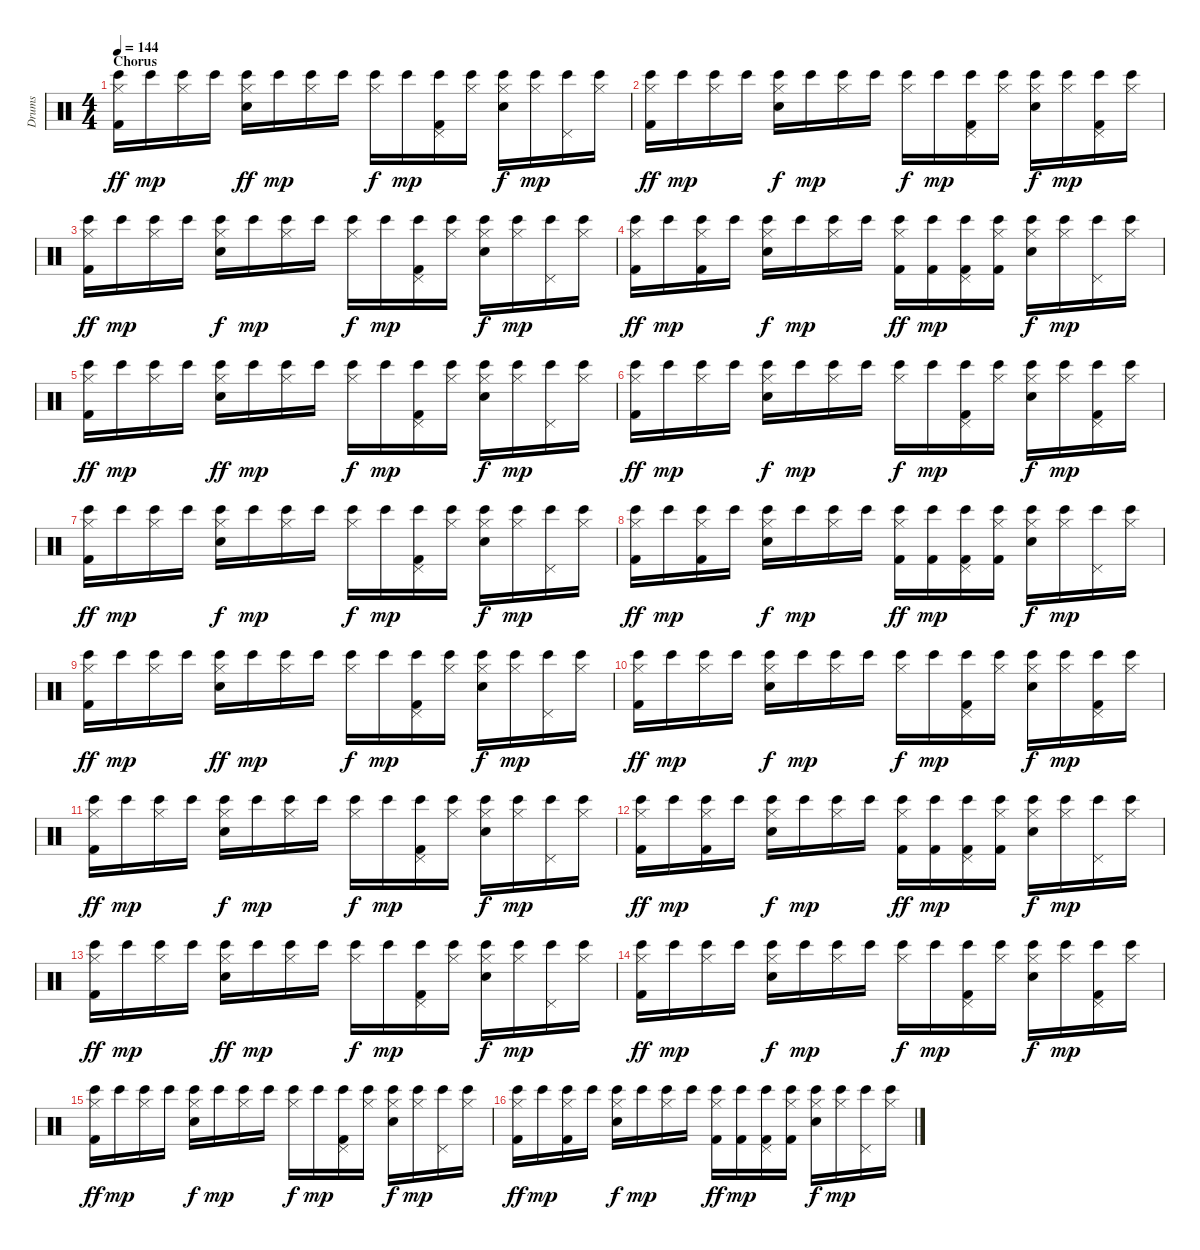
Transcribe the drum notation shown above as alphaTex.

\track ("Drums" "Drums") {instrument percussion}
\staff {score}
\articulation defaults
\ts (4 4)
\section ("" "Chorus")
\tempo 144
\clef neutral
\ks c
("Kick (hit) 2" "Hi-Hat (closed)" "Bongo High (hit)").16{dy ff} "Bongo High (hit)".16{dy mp} ("Hi-Hat (closed)" "Bongo High (hit)").16 "Bongo High (hit)".16 ("Snare (hit) 2" "Hi-Hat (closed)" "Bongo High (hit)").16{dy ff} "Bongo High (hit)".16{dy mp} ("Hi-Hat (closed)" "Bongo High (hit)").16 "Bongo High (hit)".16 ("Hi-Hat (closed)" "Bongo High (hit)").16{dy f} "Bongo High (hit)".16{dy mp} ("Kick (hit) 2" "Pedal Hi-Hat (hit)" "Bongo High (hit)").16 ("Hi-Hat (closed)" "Bongo High (hit)").16 ("Snare (hit) 2" "Hi-Hat (closed)" "Bongo High (hit)").16{dy f} ("Hi-Hat (closed)" "Bongo High (hit)").16{dy mp} ("Pedal Hi-Hat (hit)" "Bongo High (hit)").16 ("Hi-Hat (closed)" "Bongo High (hit)").16 |
("Kick (hit) 2" "Hi-Hat (closed)" "Bongo High (hit)").16{dy ff} "Bongo High (hit)".16{dy mp} ("Hi-Hat (closed)" "Bongo High (hit)").16 "Bongo High (hit)".16 ("Snare (hit) 2" "Hi-Hat (closed)" "Bongo High (hit)").16{dy f} "Bongo High (hit)".16{dy mp} ("Hi-Hat (closed)" "Bongo High (hit)").16 "Bongo High (hit)".16 ("Hi-Hat (closed)" "Bongo High (hit)").16{dy f} "Bongo High (hit)".16{dy mp} ("Kick (hit) 2" "Pedal Hi-Hat (hit)" "Bongo High (hit)").16 ("Hi-Hat (closed)" "Bongo High (hit)").16 ("Snare (hit) 2" "Hi-Hat (closed)" "Bongo High (hit)").16{dy f} ("Hi-Hat (closed)" "Bongo High (hit)").16{dy mp} ("Kick (hit) 2" "Pedal Hi-Hat (hit)" "Bongo High (hit)").16 ("Hi-Hat (closed)" "Bongo High (hit)").16 |
("Kick (hit) 2" "Hi-Hat (closed)" "Bongo High (hit)").16{dy ff} "Bongo High (hit)".16{dy mp} ("Hi-Hat (closed)" "Bongo High (hit)").16 "Bongo High (hit)".16 ("Snare (hit) 2" "Hi-Hat (closed)" "Bongo High (hit)").16{dy f} "Bongo High (hit)".16{dy mp} ("Hi-Hat (closed)" "Bongo High (hit)").16 "Bongo High (hit)".16 ("Hi-Hat (closed)" "Bongo High (hit)").16{dy f} "Bongo High (hit)".16{dy mp} ("Kick (hit) 2" "Pedal Hi-Hat (hit)" "Bongo High (hit)").16 ("Hi-Hat (closed)" "Bongo High (hit)").16 ("Snare (hit) 2" "Hi-Hat (closed)" "Bongo High (hit)").16{dy f} ("Hi-Hat (closed)" "Bongo High (hit)").16{dy mp} ("Pedal Hi-Hat (hit)" "Bongo High (hit)").16 ("Hi-Hat (closed)" "Bongo High (hit)").16 |
("Kick (hit) 2" "Hi-Hat (closed)" "Bongo High (hit)").16{dy ff} "Bongo High (hit)".16{dy mp} ("Kick (hit) 2" "Hi-Hat (closed)" "Bongo High (hit)").16 "Bongo High (hit)".16 ("Snare (hit) 2" "Hi-Hat (closed)" "Bongo High (hit)").16{dy f} "Bongo High (hit)".16{dy mp} ("Hi-Hat (closed)" "Bongo High (hit)").16 "Bongo High (hit)".16 ("Kick (hit) 2" "Hi-Hat (closed)" "Bongo High (hit)").16{dy ff} ("Kick (hit) 2" "Bongo High (hit)").16{dy mp} ("Kick (hit) 2" "Pedal Hi-Hat (hit)" "Bongo High (hit)").16 ("Kick (hit) 2" "Hi-Hat (closed)" "Bongo High (hit)").16 ("Snare (hit) 2" "Hi-Hat (closed)" "Bongo High (hit)").16{dy f} ("Hi-Hat (closed)" "Bongo High (hit)").16{dy mp} ("Pedal Hi-Hat (hit)" "Bongo High (hit)").16 ("Hi-Hat (closed)" "Bongo High (hit)").16 |
("Kick (hit) 2" "Hi-Hat (closed)" "Bongo High (hit)").16{dy ff} "Bongo High (hit)".16{dy mp} ("Hi-Hat (closed)" "Bongo High (hit)").16 "Bongo High (hit)".16 ("Snare (hit) 2" "Hi-Hat (closed)" "Bongo High (hit)").16{dy ff} "Bongo High (hit)".16{dy mp} ("Hi-Hat (closed)" "Bongo High (hit)").16 "Bongo High (hit)".16 ("Hi-Hat (closed)" "Bongo High (hit)").16{dy f} "Bongo High (hit)".16{dy mp} ("Kick (hit) 2" "Pedal Hi-Hat (hit)" "Bongo High (hit)").16 ("Hi-Hat (closed)" "Bongo High (hit)").16 ("Snare (hit) 2" "Hi-Hat (closed)" "Bongo High (hit)").16{dy f} ("Hi-Hat (closed)" "Bongo High (hit)").16{dy mp} ("Pedal Hi-Hat (hit)" "Bongo High (hit)").16 ("Hi-Hat (closed)" "Bongo High (hit)").16 |
("Kick (hit) 2" "Hi-Hat (closed)" "Bongo High (hit)").16{dy ff} "Bongo High (hit)".16{dy mp} ("Hi-Hat (closed)" "Bongo High (hit)").16 "Bongo High (hit)".16 ("Snare (hit) 2" "Hi-Hat (closed)" "Bongo High (hit)").16{dy f} "Bongo High (hit)".16{dy mp} ("Hi-Hat (closed)" "Bongo High (hit)").16 "Bongo High (hit)".16 ("Hi-Hat (closed)" "Bongo High (hit)").16{dy f} "Bongo High (hit)".16{dy mp} ("Kick (hit) 2" "Pedal Hi-Hat (hit)" "Bongo High (hit)").16 ("Hi-Hat (closed)" "Bongo High (hit)").16 ("Snare (hit) 2" "Hi-Hat (closed)" "Bongo High (hit)").16{dy f} ("Hi-Hat (closed)" "Bongo High (hit)").16{dy mp} ("Kick (hit) 2" "Pedal Hi-Hat (hit)" "Bongo High (hit)").16 ("Hi-Hat (closed)" "Bongo High (hit)").16 |
("Kick (hit) 2" "Hi-Hat (closed)" "Bongo High (hit)").16{dy ff} "Bongo High (hit)".16{dy mp} ("Hi-Hat (closed)" "Bongo High (hit)").16 "Bongo High (hit)".16 ("Snare (hit) 2" "Hi-Hat (closed)" "Bongo High (hit)").16{dy f} "Bongo High (hit)".16{dy mp} ("Hi-Hat (closed)" "Bongo High (hit)").16 "Bongo High (hit)".16 ("Hi-Hat (closed)" "Bongo High (hit)").16{dy f} "Bongo High (hit)".16{dy mp} ("Kick (hit) 2" "Pedal Hi-Hat (hit)" "Bongo High (hit)").16 ("Hi-Hat (closed)" "Bongo High (hit)").16 ("Snare (hit) 2" "Hi-Hat (closed)" "Bongo High (hit)").16{dy f} ("Hi-Hat (closed)" "Bongo High (hit)").16{dy mp} ("Pedal Hi-Hat (hit)" "Bongo High (hit)").16 ("Hi-Hat (closed)" "Bongo High (hit)").16 |
("Kick (hit) 2" "Hi-Hat (closed)" "Bongo High (hit)").16{dy ff} "Bongo High (hit)".16{dy mp} ("Kick (hit) 2" "Hi-Hat (closed)" "Bongo High (hit)").16 "Bongo High (hit)".16 ("Snare (hit) 2" "Hi-Hat (closed)" "Bongo High (hit)").16{dy f} "Bongo High (hit)".16{dy mp} ("Hi-Hat (closed)" "Bongo High (hit)").16 "Bongo High (hit)".16 ("Kick (hit) 2" "Hi-Hat (closed)" "Bongo High (hit)").16{dy ff} ("Kick (hit) 2" "Bongo High (hit)").16{dy mp} ("Kick (hit) 2" "Pedal Hi-Hat (hit)" "Bongo High (hit)").16 ("Kick (hit) 2" "Hi-Hat (closed)" "Bongo High (hit)").16 ("Snare (hit) 2" "Hi-Hat (closed)" "Bongo High (hit)").16{dy f} ("Hi-Hat (closed)" "Bongo High (hit)").16{dy mp} ("Pedal Hi-Hat (hit)" "Bongo High (hit)").16 ("Hi-Hat (closed)" "Bongo High (hit)").16 |
("Kick (hit) 2" "Hi-Hat (closed)" "Bongo High (hit)").16{dy ff} "Bongo High (hit)".16{dy mp} ("Hi-Hat (closed)" "Bongo High (hit)").16 "Bongo High (hit)".16 ("Snare (hit) 2" "Hi-Hat (closed)" "Bongo High (hit)").16{dy ff} "Bongo High (hit)".16{dy mp} ("Hi-Hat (closed)" "Bongo High (hit)").16 "Bongo High (hit)".16 ("Hi-Hat (closed)" "Bongo High (hit)").16{dy f} "Bongo High (hit)".16{dy mp} ("Kick (hit) 2" "Pedal Hi-Hat (hit)" "Bongo High (hit)").16 ("Hi-Hat (closed)" "Bongo High (hit)").16 ("Snare (hit) 2" "Hi-Hat (closed)" "Bongo High (hit)").16{dy f} ("Hi-Hat (closed)" "Bongo High (hit)").16{dy mp} ("Pedal Hi-Hat (hit)" "Bongo High (hit)").16 ("Hi-Hat (closed)" "Bongo High (hit)").16 |
("Kick (hit) 2" "Hi-Hat (closed)" "Bongo High (hit)").16{dy ff} "Bongo High (hit)".16{dy mp} ("Hi-Hat (closed)" "Bongo High (hit)").16 "Bongo High (hit)".16 ("Snare (hit) 2" "Hi-Hat (closed)" "Bongo High (hit)").16{dy f} "Bongo High (hit)".16{dy mp} ("Hi-Hat (closed)" "Bongo High (hit)").16 "Bongo High (hit)".16 ("Hi-Hat (closed)" "Bongo High (hit)").16{dy f} "Bongo High (hit)".16{dy mp} ("Kick (hit) 2" "Pedal Hi-Hat (hit)" "Bongo High (hit)").16 ("Hi-Hat (closed)" "Bongo High (hit)").16 ("Snare (hit) 2" "Hi-Hat (closed)" "Bongo High (hit)").16{dy f} ("Hi-Hat (closed)" "Bongo High (hit)").16{dy mp} ("Kick (hit) 2" "Pedal Hi-Hat (hit)" "Bongo High (hit)").16 ("Hi-Hat (closed)" "Bongo High (hit)").16 |
("Kick (hit) 2" "Hi-Hat (closed)" "Bongo High (hit)").16{dy ff} "Bongo High (hit)".16{dy mp} ("Hi-Hat (closed)" "Bongo High (hit)").16 "Bongo High (hit)".16 ("Snare (hit) 2" "Hi-Hat (closed)" "Bongo High (hit)").16{dy f} "Bongo High (hit)".16{dy mp} ("Hi-Hat (closed)" "Bongo High (hit)").16 "Bongo High (hit)".16 ("Hi-Hat (closed)" "Bongo High (hit)").16{dy f} "Bongo High (hit)".16{dy mp} ("Kick (hit) 2" "Pedal Hi-Hat (hit)" "Bongo High (hit)").16 ("Hi-Hat (closed)" "Bongo High (hit)").16 ("Snare (hit) 2" "Hi-Hat (closed)" "Bongo High (hit)").16{dy f} ("Hi-Hat (closed)" "Bongo High (hit)").16{dy mp} ("Pedal Hi-Hat (hit)" "Bongo High (hit)").16 ("Hi-Hat (closed)" "Bongo High (hit)").16 |
("Kick (hit) 2" "Hi-Hat (closed)" "Bongo High (hit)").16{dy ff} "Bongo High (hit)".16{dy mp} ("Kick (hit) 2" "Hi-Hat (closed)" "Bongo High (hit)").16 "Bongo High (hit)".16 ("Snare (hit) 2" "Hi-Hat (closed)" "Bongo High (hit)").16{dy f} "Bongo High (hit)".16{dy mp} ("Hi-Hat (closed)" "Bongo High (hit)").16 "Bongo High (hit)".16 ("Kick (hit) 2" "Hi-Hat (closed)" "Bongo High (hit)").16{dy ff} ("Kick (hit) 2" "Bongo High (hit)").16{dy mp} ("Kick (hit) 2" "Pedal Hi-Hat (hit)" "Bongo High (hit)").16 ("Kick (hit) 2" "Hi-Hat (closed)" "Bongo High (hit)").16 ("Snare (hit) 2" "Hi-Hat (closed)" "Bongo High (hit)").16{dy f} ("Hi-Hat (closed)" "Bongo High (hit)").16{dy mp} ("Pedal Hi-Hat (hit)" "Bongo High (hit)").16 ("Hi-Hat (closed)" "Bongo High (hit)").16 |
("Kick (hit) 2" "Hi-Hat (closed)" "Bongo High (hit)").16{dy ff} "Bongo High (hit)".16{dy mp} ("Hi-Hat (closed)" "Bongo High (hit)").16 "Bongo High (hit)".16 ("Snare (hit) 2" "Hi-Hat (closed)" "Bongo High (hit)").16{dy ff} "Bongo High (hit)".16{dy mp} ("Hi-Hat (closed)" "Bongo High (hit)").16 "Bongo High (hit)".16 ("Hi-Hat (closed)" "Bongo High (hit)").16{dy f} "Bongo High (hit)".16{dy mp} ("Kick (hit) 2" "Pedal Hi-Hat (hit)" "Bongo High (hit)").16 ("Hi-Hat (closed)" "Bongo High (hit)").16 ("Snare (hit) 2" "Hi-Hat (closed)" "Bongo High (hit)").16{dy f} ("Hi-Hat (closed)" "Bongo High (hit)").16{dy mp} ("Pedal Hi-Hat (hit)" "Bongo High (hit)").16 ("Hi-Hat (closed)" "Bongo High (hit)").16 |
("Kick (hit) 2" "Hi-Hat (closed)" "Bongo High (hit)").16{dy ff} "Bongo High (hit)".16{dy mp} ("Hi-Hat (closed)" "Bongo High (hit)").16 "Bongo High (hit)".16 ("Snare (hit) 2" "Hi-Hat (closed)" "Bongo High (hit)").16{dy f} "Bongo High (hit)".16{dy mp} ("Hi-Hat (closed)" "Bongo High (hit)").16 "Bongo High (hit)".16 ("Hi-Hat (closed)" "Bongo High (hit)").16{dy f} "Bongo High (hit)".16{dy mp} ("Kick (hit) 2" "Pedal Hi-Hat (hit)" "Bongo High (hit)").16 ("Hi-Hat (closed)" "Bongo High (hit)").16 ("Snare (hit) 2" "Hi-Hat (closed)" "Bongo High (hit)").16{dy f} ("Hi-Hat (closed)" "Bongo High (hit)").16{dy mp} ("Kick (hit) 2" "Pedal Hi-Hat (hit)" "Bongo High (hit)").16 ("Hi-Hat (closed)" "Bongo High (hit)").16 |
("Kick (hit) 2" "Hi-Hat (closed)" "Bongo High (hit)").16{dy ff} "Bongo High (hit)".16{dy mp} ("Hi-Hat (closed)" "Bongo High (hit)").16 "Bongo High (hit)".16 ("Snare (hit) 2" "Hi-Hat (closed)" "Bongo High (hit)").16{dy f} "Bongo High (hit)".16{dy mp} ("Hi-Hat (closed)" "Bongo High (hit)").16 "Bongo High (hit)".16 ("Hi-Hat (closed)" "Bongo High (hit)").16{dy f} "Bongo High (hit)".16{dy mp} ("Kick (hit) 2" "Pedal Hi-Hat (hit)" "Bongo High (hit)").16 ("Hi-Hat (closed)" "Bongo High (hit)").16 ("Snare (hit) 2" "Hi-Hat (closed)" "Bongo High (hit)").16{dy f} ("Hi-Hat (closed)" "Bongo High (hit)").16{dy mp} ("Pedal Hi-Hat (hit)" "Bongo High (hit)").16 ("Hi-Hat (closed)" "Bongo High (hit)").16 |
("Kick (hit) 2" "Hi-Hat (closed)" "Bongo High (hit)").16{dy ff} "Bongo High (hit)".16{dy mp} ("Kick (hit) 2" "Hi-Hat (closed)" "Bongo High (hit)").16 "Bongo High (hit)".16 ("Snare (hit) 2" "Hi-Hat (closed)" "Bongo High (hit)").16{dy f} "Bongo High (hit)".16{dy mp} ("Hi-Hat (closed)" "Bongo High (hit)").16 "Bongo High (hit)".16 ("Kick (hit) 2" "Hi-Hat (closed)" "Bongo High (hit)").16{dy ff} ("Kick (hit) 2" "Bongo High (hit)").16{dy mp} ("Kick (hit) 2" "Pedal Hi-Hat (hit)" "Bongo High (hit)").16 ("Kick (hit) 2" "Hi-Hat (closed)" "Bongo High (hit)").16 ("Snare (hit) 2" "Hi-Hat (closed)" "Bongo High (hit)").16{dy f} ("Hi-Hat (closed)" "Bongo High (hit)").16{dy mp} ("Pedal Hi-Hat (hit)" "Bongo High (hit)").16 ("Hi-Hat (closed)" "Bongo High (hit)").16
